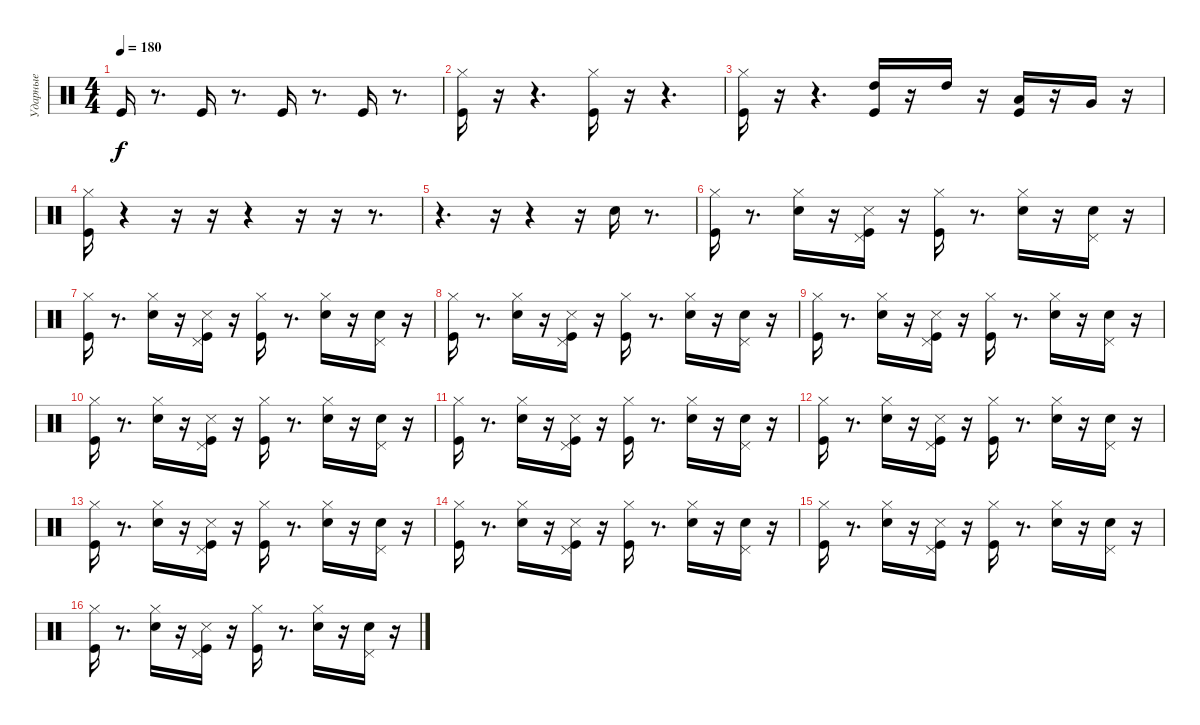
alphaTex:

\track ("Ударные" "Ударные") {instrument percussion}
\staff {score}
\articulation defaults
\ts (4 4)
\tempo 180
\clef neutral
\ks c "Kick (hit)".16{dy f}
r.8{d} "Kick (hit)".16 r.8{d} "Kick (hit)".16 r.8{d} "Kick (hit)".16 r.8{d} |
("Kick (hit)" "Hi-Hat (closed)").16 r.16 r.4{d} ("Kick (hit)" "Hi-Hat (closed)").16 r.16 r.4{d} |
("Kick (hit)" "Hi-Hat (closed)").16 r.16 r.4{d} ("High Tom (hit)" "Kick (hit)").16 r.16 "High Tom (hit)".16 r.16 ("Kick (hit)" "Low Tom (hit)").16 r.16 "Very Low Tom (hit)".16 r.16 |
("Hi-Hat (closed)" "Kick (hit)").16 r.4 r.16 r.16 r.4 r.16 r.16 r.8{d} |
r.4{d} r.16 r.4 r.16 "Snare (hit) 2".16 r.8{d} |
("Hi-Hat (closed)" "Kick (hit)").16 r.8{d} ("Hi-Hat (closed)" "Snare (hit) 2").16 r.16 ("Snare (side stick) 3" "Kick (hit)" "Pedal Hi-Hat (hit)").16 r.16 ("Hi-Hat (closed)" "Kick (hit)").16 r.8{d} ("Hi-Hat (closed)" "Snare (hit) 2").16 r.16 ("Snare (hit) 2" "Pedal Hi-Hat (hit)").16 r.16 |
("Hi-Hat (closed)" "Kick (hit)").16 r.8{d} ("Hi-Hat (closed)" "Snare (hit) 2").16 r.16 ("Snare (side stick) 3" "Kick (hit)" "Pedal Hi-Hat (hit)").16 r.16 ("Hi-Hat (closed)" "Kick (hit)").16 r.8{d} ("Hi-Hat (closed)" "Snare (hit) 2").16 r.16 ("Snare (hit) 2" "Pedal Hi-Hat (hit)").16 r.16 |
("Hi-Hat (closed)" "Kick (hit)").16 r.8{d} ("Hi-Hat (closed)" "Snare (hit) 2").16 r.16 ("Snare (side stick) 3" "Kick (hit)" "Pedal Hi-Hat (hit)").16 r.16 ("Hi-Hat (closed)" "Kick (hit)").16 r.8{d} ("Hi-Hat (closed)" "Snare (hit) 2").16 r.16 ("Snare (hit) 2" "Pedal Hi-Hat (hit)").16 r.16 |
("Hi-Hat (closed)" "Kick (hit)").16 r.8{d} ("Hi-Hat (closed)" "Snare (hit) 2").16 r.16 ("Snare (side stick) 3" "Kick (hit)" "Pedal Hi-Hat (hit)").16 r.16 ("Hi-Hat (closed)" "Kick (hit)").16 r.8{d} ("Hi-Hat (closed)" "Snare (hit) 2").16 r.16 ("Snare (hit) 2" "Pedal Hi-Hat (hit)").16 r.16 |
("Hi-Hat (closed)" "Kick (hit)").16 r.8{d} ("Hi-Hat (closed)" "Snare (hit) 2").16 r.16 ("Snare (side stick) 3" "Kick (hit)" "Pedal Hi-Hat (hit)").16 r.16 ("Hi-Hat (closed)" "Kick (hit)").16 r.8{d} ("Hi-Hat (closed)" "Snare (hit) 2").16 r.16 ("Snare (hit) 2" "Pedal Hi-Hat (hit)").16 r.16 |
("Hi-Hat (closed)" "Kick (hit)").16 r.8{d} ("Hi-Hat (closed)" "Snare (hit) 2").16 r.16 ("Snare (side stick) 3" "Kick (hit)" "Pedal Hi-Hat (hit)").16 r.16 ("Hi-Hat (closed)" "Kick (hit)").16 r.8{d} ("Hi-Hat (closed)" "Snare (hit) 2").16 r.16 ("Snare (hit) 2" "Pedal Hi-Hat (hit)").16 r.16 |
("Hi-Hat (closed)" "Kick (hit)").16 r.8{d} ("Hi-Hat (closed)" "Snare (hit) 2").16 r.16 ("Snare (side stick) 3" "Kick (hit)" "Pedal Hi-Hat (hit)").16 r.16 ("Hi-Hat (closed)" "Kick (hit)").16 r.8{d} ("Hi-Hat (closed)" "Snare (hit) 2").16 r.16 ("Snare (hit) 2" "Pedal Hi-Hat (hit)").16 r.16 |
("Hi-Hat (closed)" "Kick (hit)").16 r.8{d} ("Hi-Hat (closed)" "Snare (hit) 2").16 r.16 ("Snare (side stick) 3" "Kick (hit)" "Pedal Hi-Hat (hit)").16 r.16 ("Hi-Hat (closed)" "Kick (hit)").16 r.8{d} ("Hi-Hat (closed)" "Snare (hit) 2").16 r.16 ("Snare (hit) 2" "Pedal Hi-Hat (hit)").16 r.16 |
("Hi-Hat (closed)" "Kick (hit)").16 r.8{d} ("Hi-Hat (closed)" "Snare (hit) 2").16 r.16 ("Snare (side stick) 3" "Kick (hit)" "Pedal Hi-Hat (hit)").16 r.16 ("Hi-Hat (closed)" "Kick (hit)").16 r.8{d} ("Hi-Hat (closed)" "Snare (hit) 2").16 r.16 ("Snare (hit) 2" "Pedal Hi-Hat (hit)").16 r.16 |
("Hi-Hat (closed)" "Kick (hit)").16 r.8{d} ("Hi-Hat (closed)" "Snare (hit) 2").16 r.16 ("Snare (side stick) 3" "Kick (hit)" "Pedal Hi-Hat (hit)").16 r.16 ("Hi-Hat (closed)" "Kick (hit)").16 r.8{d} ("Hi-Hat (closed)" "Snare (hit) 2").16 r.16 ("Snare (hit) 2" "Pedal Hi-Hat (hit)").16 r.16 |
("Hi-Hat (closed)" "Kick (hit)").16 r.8{d} ("Hi-Hat (closed)" "Snare (hit) 2").16 r.16 ("Snare (side stick) 3" "Kick (hit)" "Pedal Hi-Hat (hit)").16 r.16 ("Hi-Hat (closed)" "Kick (hit)").16 r.8{d} ("Hi-Hat (closed)" "Snare (hit) 2").16 r.16 ("Snare (hit) 2" "Pedal Hi-Hat (hit)").16 r.16
